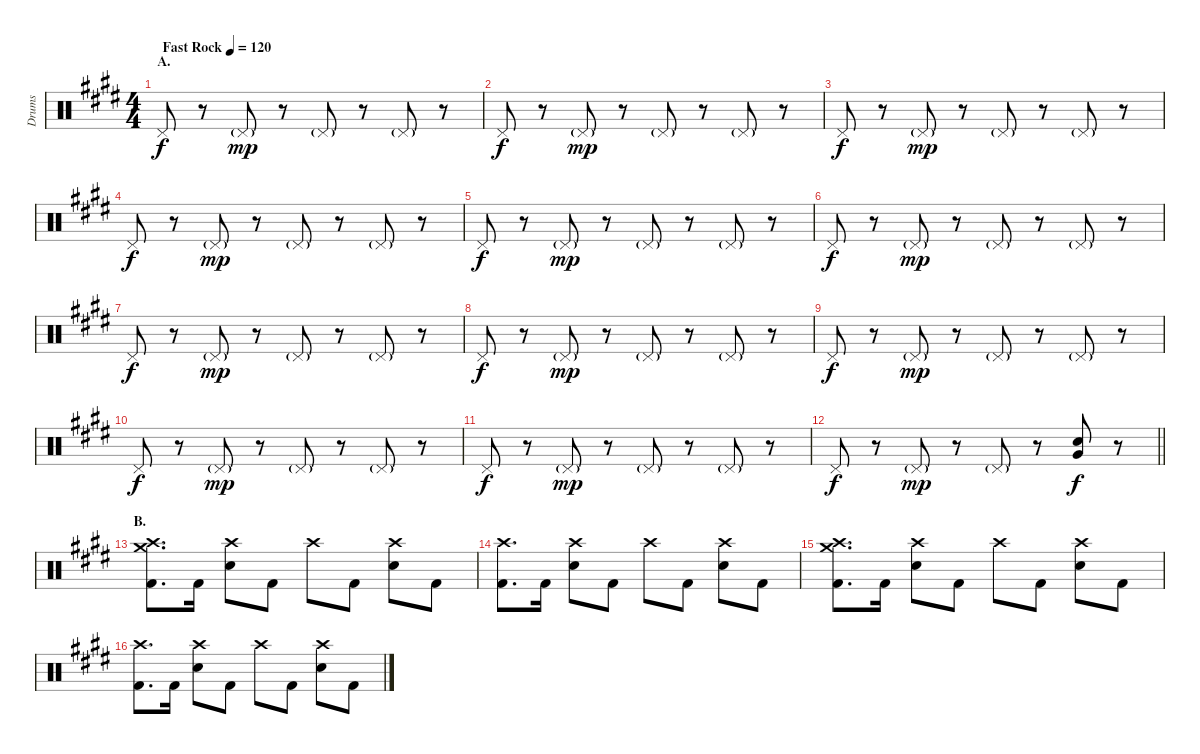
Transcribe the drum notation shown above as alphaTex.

\track ("Drums" "Drums") {instrument percussion}
\staff {score}
\articulation defaults
\ts (4 4)
\section ("" "A.")
\tempo (120 "Fast Rock")
\clef neutral
\ks e "Pedal Hi-Hat (hit)".8{dy f}
r.8 "Pedal Hi-Hat (hit)"{g}.8{dy mp} r.8 "Pedal Hi-Hat (hit)"{g}.8 r.8 "Pedal Hi-Hat (hit)"{g}.8 r.8 |
"Pedal Hi-Hat (hit)".8{dy f} r.8 "Pedal Hi-Hat (hit)"{g}.8{dy mp} r.8 "Pedal Hi-Hat (hit)"{g}.8 r.8 "Pedal Hi-Hat (hit)"{g}.8 r.8 |
"Pedal Hi-Hat (hit)".8{dy f} r.8 "Pedal Hi-Hat (hit)"{g}.8{dy mp} r.8 "Pedal Hi-Hat (hit)"{g}.8 r.8 "Pedal Hi-Hat (hit)"{g}.8 r.8 |
"Pedal Hi-Hat (hit)".8{dy f} r.8 "Pedal Hi-Hat (hit)"{g}.8{dy mp} r.8 "Pedal Hi-Hat (hit)"{g}.8 r.8 "Pedal Hi-Hat (hit)"{g}.8 r.8 |
"Pedal Hi-Hat (hit)".8{dy f} r.8 "Pedal Hi-Hat (hit)"{g}.8{dy mp} r.8 "Pedal Hi-Hat (hit)"{g}.8 r.8 "Pedal Hi-Hat (hit)"{g}.8 r.8 |
"Pedal Hi-Hat (hit)".8{dy f} r.8 "Pedal Hi-Hat (hit)"{g}.8{dy mp} r.8 "Pedal Hi-Hat (hit)"{g}.8 r.8 "Pedal Hi-Hat (hit)"{g}.8 r.8 |
"Pedal Hi-Hat (hit)".8{dy f} r.8 "Pedal Hi-Hat (hit)"{g}.8{dy mp} r.8 "Pedal Hi-Hat (hit)"{g}.8 r.8 "Pedal Hi-Hat (hit)"{g}.8 r.8 |
"Pedal Hi-Hat (hit)".8{dy f} r.8 "Pedal Hi-Hat (hit)"{g}.8{dy mp} r.8 "Pedal Hi-Hat (hit)"{g}.8 r.8 "Pedal Hi-Hat (hit)"{g}.8 r.8 |
"Pedal Hi-Hat (hit)".8{dy f} r.8 "Pedal Hi-Hat (hit)"{g}.8{dy mp} r.8 "Pedal Hi-Hat (hit)"{g}.8 r.8 "Pedal Hi-Hat (hit)"{g}.8 r.8 |
"Pedal Hi-Hat (hit)".8{dy f} r.8 "Pedal Hi-Hat (hit)"{g}.8{dy mp} r.8 "Pedal Hi-Hat (hit)"{g}.8 r.8 "Pedal Hi-Hat (hit)"{g}.8 r.8 |
"Pedal Hi-Hat (hit)".8{dy f} r.8 "Pedal Hi-Hat (hit)"{g}.8{dy mp} r.8 "Pedal Hi-Hat (hit)"{g}.8 r.8 "Pedal Hi-Hat (hit)"{g}.8 r.8 |
\barLineRight lightlight "Pedal Hi-Hat (hit)".8{dy f}
r.8 "Pedal Hi-Hat (hit)"{g}.8{dy mp} r.8 "Pedal Hi-Hat (hit)"{g}.8 r.8 ("Electric Snare (hit)" "Very Low Tom (hit)").8{bu 60 dy f} r.8 |
\section ("" "B.")
("Crash medium (hit)" "Crash high (hit)" "Kick (hit) 2").8{d} "Kick (hit) 2".16 ("Crash high (hit)" "Electric Snare (hit)").8 "Kick (hit) 2".8 "Crash high (hit)".8 "Kick (hit) 2".8 ("Crash high (hit)" "Electric Snare (hit)").8 "Kick (hit) 2".8 |
("Crash high (hit)" "Kick (hit) 2").8{d} "Kick (hit) 2".16 ("Crash high (hit)" "Electric Snare (hit)").8 "Kick (hit) 2".8 "Crash high (hit)".8 "Kick (hit) 2".8 ("Crash high (hit)" "Electric Snare (hit)").8 "Kick (hit) 2".8 |
("Crash medium (hit)" "Crash high (hit)" "Kick (hit) 2").8{d} "Kick (hit) 2".16 ("Crash high (hit)" "Electric Snare (hit)").8 "Kick (hit) 2".8 "Crash high (hit)".8 "Kick (hit) 2".8 ("Crash high (hit)" "Electric Snare (hit)").8 "Kick (hit) 2".8 |
("Crash high (hit)" "Kick (hit) 2").8{d} "Kick (hit) 2".16 ("Crash high (hit)" "Electric Snare (hit)").8 "Kick (hit) 2".8 "Crash high (hit)".8 "Kick (hit) 2".8 ("Crash high (hit)" "Electric Snare (hit)").8 "Kick (hit) 2".8
